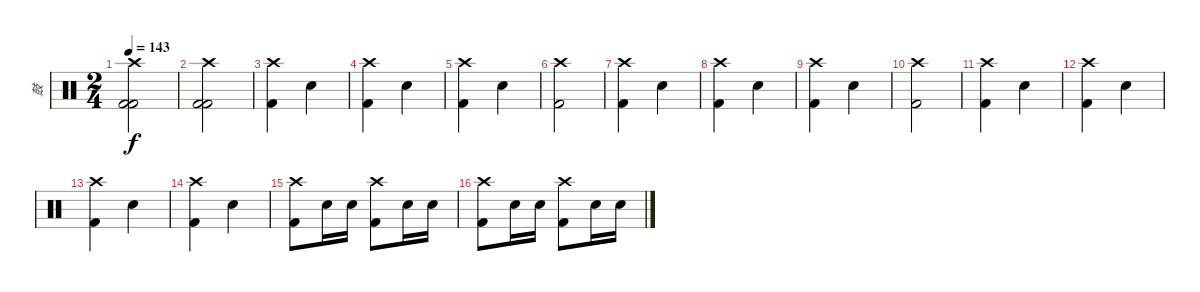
\track ("鼓" "鼓") {instrument percussion}
\staff {score}
\articulation defaults
\ts (2 4)
\tempo 143
\clef neutral
\ks c
("Kick (hit) 2" "Crash high (hit)" "Kick (hit) 2").2{dy f} |
("Kick (hit) 2" "Crash high (hit)" "Kick (hit) 2").2 |
("Kick (hit) 2" "Crash high (hit)").4 "Hand Clap (hit)".4 |
("Kick (hit) 2" "Crash high (hit)").4 "Hand Clap (hit)".4 |
("Kick (hit) 2" "Crash high (hit)").4 "Hand Clap (hit)".4 |
("Kick (hit) 2" "Crash high (hit)").2 |
("Kick (hit) 2" "Crash high (hit)").4 "Hand Clap (hit)".4 |
("Kick (hit) 2" "Crash high (hit)").4 "Hand Clap (hit)".4 |
("Kick (hit) 2" "Crash high (hit)").4 "Hand Clap (hit)".4 |
("Kick (hit) 2" "Crash high (hit)").2 |
("Kick (hit) 2" "Crash high (hit)").4 "Hand Clap (hit)".4 |
("Kick (hit) 2" "Crash high (hit)").4 "Hand Clap (hit)".4 |
("Kick (hit) 2" "Crash high (hit)").4 "Hand Clap (hit)".4 |
("Kick (hit) 2" "Crash high (hit)").4 "Hand Clap (hit)".4 |
("Kick (hit) 2" "Crash high (hit)").8 "Electric Snare (hit)".16 "Electric Snare (hit)".16 ("Kick (hit) 2" "Crash high (hit)").8 "Electric Snare (hit)".16 "Electric Snare (hit)".16 |
("Kick (hit) 2" "Crash high (hit)").8 "Electric Snare (hit)".16 "Electric Snare (hit)".16 ("Kick (hit) 2" "Crash high (hit)").8 "Electric Snare (hit)".16 "Electric Snare (hit)".16
